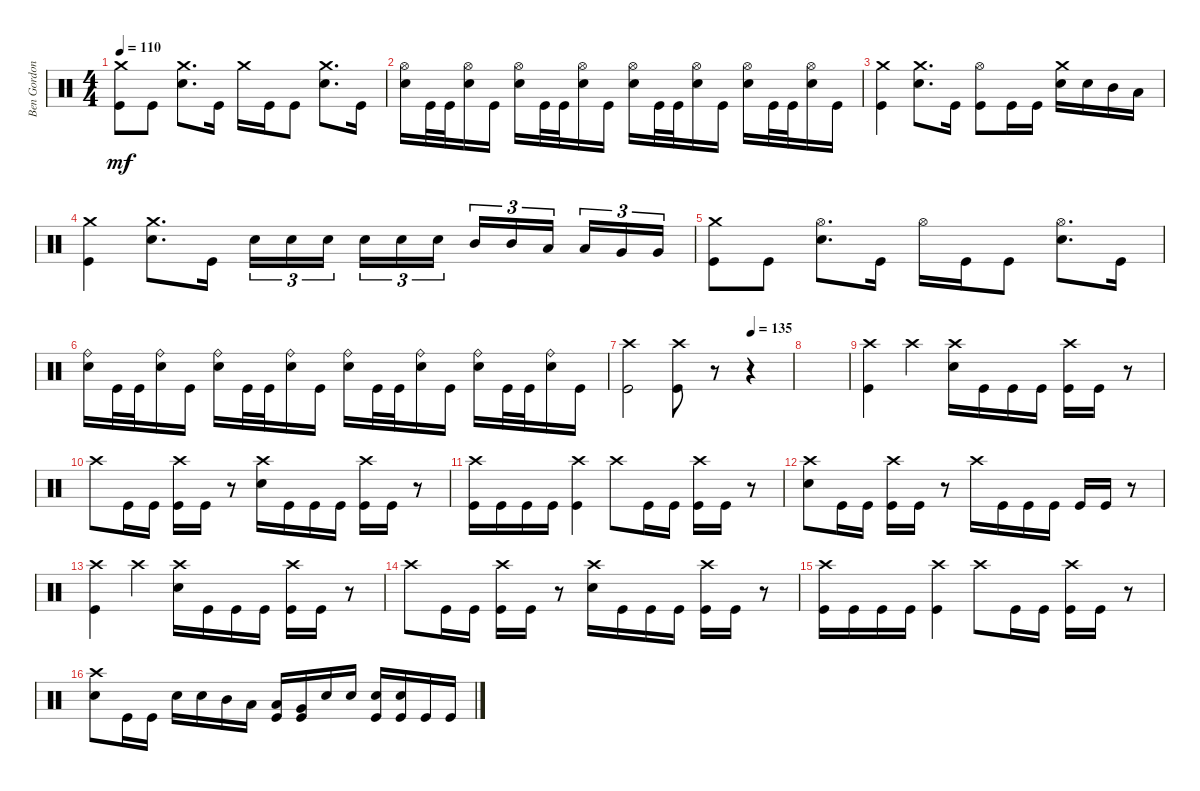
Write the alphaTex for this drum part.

\track ("Ben Gordon" "Ben Gordon") {instrument percussion}
\staff {score}
\articulation defaults
\ts (4 4)
\tempo 110
\clef neutral
\ks c
("Crash medium (hit)" "Kick (hit)").8{dy mf} "Kick (hit)".8 ("Crash medium (hit)" "Snare (hit) 2").8{d} "Kick (hit)".16 "Crash medium (hit)".16 "Kick (hit)".16 "Kick (hit)".8 ("Crash medium (hit)" "Snare (hit) 2").8{d} "Kick (hit)".16 |
("Hi-Hat (open)" "Snare (hit) 2").16 "Kick (hit)".32 "Kick (hit)".32 ("Hi-Hat (open)" "Snare (hit) 2").16 "Kick (hit)".16 ("Hi-Hat (open)" "Snare (hit) 2").16 "Kick (hit)".32 "Kick (hit)".32 ("Hi-Hat (open)" "Snare (hit) 2").16 "Kick (hit)".16 ("Hi-Hat (open)" "Snare (hit) 2").16 "Kick (hit)".32 "Kick (hit)".32 ("Hi-Hat (open)" "Snare (hit) 2").16 "Kick (hit)".16 ("Hi-Hat (open)" "Snare (hit) 2").16 "Kick (hit)".32 "Kick (hit)".32 ("Hi-Hat (open)" "Snare (hit) 2").16 "Kick (hit)".16 |
("Crash medium (hit)" "Kick (hit)").4 ("Crash medium (hit)" "Snare (hit) 2").8{d} "Kick (hit)".16 ("Hi-Hat (open)" "Kick (hit)").8 "Kick (hit)".16 "Kick (hit)".16 ("Crash medium (hit)" "Snare (hit) 2").16 "Snare (hit) 2".16 "Mid Tom (hit)".16 "Low Tom (hit)".16 |
("Crash medium (hit)" "Kick (hit)").4 ("Crash medium (hit)" "Snare (hit) 2").8{d} "Kick (hit)".16 "Snare (hit) 2".16{tu (3 2)} "Snare (hit) 2".16{tu (3 2)} "Snare (hit) 2".16{tu (3 2) beam splitsecondary} "Snare (hit) 2".16{tu (3 2)} "Snare (hit) 2".16{tu (3 2)} "Snare (hit) 2".16{tu (3 2)} "Mid Tom (hit)".16{tu (3 2)} "Mid Tom (hit)".16{tu (3 2)} "Low Tom (hit)".16{tu (3 2) beam splitsecondary} "Low Tom (hit)".16{tu (3 2)} "Very Low Tom (hit)".16{tu (3 2)} "Very Low Tom (hit)".16{tu (3 2)} |
("Crash medium (hit)" "Kick (hit)").8 "Kick (hit)".8 ("Hi-Hat (open)" "Snare (hit) 2").8{d} "Kick (hit)".16 "Hi-Hat (open)".16 "Kick (hit)".16 "Kick (hit)".8 ("Hi-Hat (open)" "Snare (hit) 2").8{d} "Kick (hit)".16 |
("Ride (bell)" "Snare (hit) 2").16 "Kick (hit)".32 "Kick (hit)".32 ("Ride (bell)" "Snare (hit) 2").16 "Kick (hit)".16 ("Ride (bell)" "Snare (hit) 2").16 "Kick (hit)".32 "Kick (hit)".32 ("Ride (bell)" "Snare (hit) 2").16 "Kick (hit)".16 ("Ride (bell)" "Snare (hit) 2").16 "Kick (hit)".32 "Kick (hit)".32 ("Ride (bell)" "Snare (hit) 2").16 "Kick (hit)".16 ("Ride (bell)" "Snare (hit) 2").16 "Kick (hit)".32 "Kick (hit)".32 ("Ride (bell)" "Snare (hit) 2").16 "Kick (hit)".16 |
\tempo (135 0.75)
("Crash high (hit)" "Kick (hit)").2 ("Crash high (hit)" "Kick (hit)").8 r.8 r.4 |
|
("Crash high (hit)" "Kick (hit)").4 "Crash high (hit)".4 ("Crash high (hit)" "Snare (hit) 2").16 "Kick (hit)".16 "Kick (hit)".16 "Kick (hit)".16 ("Crash high (hit)" "Kick (hit)").16 "Kick (hit)".16 r.8 |
"Crash high (hit)".8 "Kick (hit)".16 "Kick (hit)".16 ("Crash high (hit)" "Kick (hit)").16 "Kick (hit)".16 r.8 ("Crash high (hit)" "Snare (hit) 2").16 "Kick (hit)".16 "Kick (hit)".16 "Kick (hit)".16 ("Crash high (hit)" "Kick (hit)").16 "Kick (hit)".16 r.8 |
("Crash high (hit)" "Kick (hit)").16 "Kick (hit)".16 "Kick (hit)".16 "Kick (hit)".16 ("Crash high (hit)" "Kick (hit)").4 "Crash high (hit)".8 "Kick (hit)".16 "Kick (hit)".16 ("Crash high (hit)" "Kick (hit)").16 "Kick (hit)".16 r.8 |
("Crash high (hit)" "Snare (hit) 2").8 "Kick (hit)".16 "Kick (hit)".16 ("Crash high (hit)" "Kick (hit)").16 "Kick (hit)".16 r.8 "Crash high (hit)".16 "Kick (hit)".16 "Kick (hit)".16 "Kick (hit)".16 "Kick (hit)".16 "Kick (hit)".16 r.8 |
("Crash high (hit)" "Kick (hit)").4 "Crash high (hit)".4 ("Crash high (hit)" "Snare (hit) 2").16 "Kick (hit)".16 "Kick (hit)".16 "Kick (hit)".16 ("Crash high (hit)" "Kick (hit)").16 "Kick (hit)".16 r.8 |
"Crash high (hit)".8 "Kick (hit)".16 "Kick (hit)".16 ("Crash high (hit)" "Kick (hit)").16 "Kick (hit)".16 r.8 ("Crash high (hit)" "Snare (hit) 2").16 "Kick (hit)".16 "Kick (hit)".16 "Kick (hit)".16 ("Crash high (hit)" "Kick (hit)").16 "Kick (hit)".16 r.8 |
("Crash high (hit)" "Kick (hit)").16 "Kick (hit)".16 "Kick (hit)".16 "Kick (hit)".16 ("Crash high (hit)" "Kick (hit)").4 "Crash high (hit)".8 "Kick (hit)".16 "Kick (hit)".16 ("Crash high (hit)" "Kick (hit)").16 "Kick (hit)".16 r.8 |
("Crash high (hit)" "Snare (hit) 2").8 "Kick (hit)".16 "Kick (hit)".16 "Snare (hit) 2".16 "Snare (hit) 2".16 "Mid Tom (hit)".16 "Low Tom (hit)".16 ("Low Tom (hit)" "Kick (hit)").16 ("Very Low Tom (hit)" "Kick (hit)").16 "Snare (hit) 2".16 "Snare (hit) 2".16 ("Snare (hit) 2" "Kick (hit)").16 ("Snare (hit) 2" "Kick (hit)").16 "Kick (hit)".16 "Kick (hit)".16
